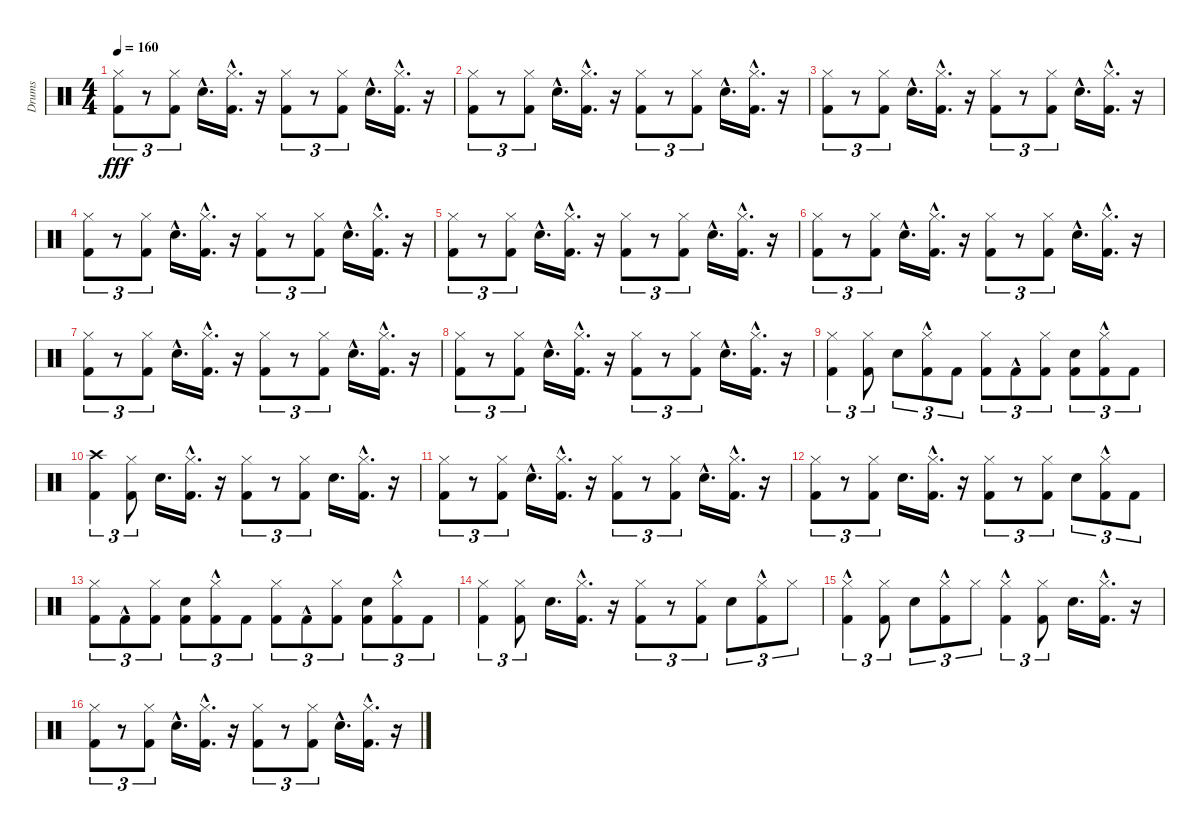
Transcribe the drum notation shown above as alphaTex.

\track ("Drums" "Drums") {instrument percussion}
\staff {score}
\articulation defaults
\ts (4 4)
\tempo 160
\clef neutral
\ks c
("Kick (hit) 2" "Hi-Hat (closed)").8{tu (3 2) dy fff} r.8{tu (3 2)} ("Kick (hit) 2" "Hi-Hat (closed)").8{tu (3 2)} "Snare (hit) 2"{hac}.16{d} ("Kick (hit) 2"{hac} "Hi-Hat (closed)"{hac}).16{d} r.16 ("Kick (hit) 2" "Hi-Hat (closed)").8{tu (3 2)} r.8{tu (3 2)} ("Kick (hit) 2" "Hi-Hat (closed)").8{tu (3 2)} "Snare (hit) 2"{hac}.16{d} ("Kick (hit) 2"{hac} "Hi-Hat (closed)"{hac}).16{d} r.16 |
("Kick (hit) 2" "Hi-Hat (closed)").8{tu (3 2)} r.8{tu (3 2)} ("Kick (hit) 2" "Hi-Hat (closed)").8{tu (3 2)} "Snare (hit) 2"{hac}.16{d} ("Kick (hit) 2"{hac} "Hi-Hat (closed)"{hac}).16{d} r.16 ("Kick (hit) 2" "Hi-Hat (closed)").8{tu (3 2)} r.8{tu (3 2)} ("Kick (hit) 2" "Hi-Hat (closed)").8{tu (3 2)} "Snare (hit) 2"{hac}.16{d} ("Kick (hit) 2"{hac} "Hi-Hat (closed)"{hac}).16{d} r.16 |
("Kick (hit) 2" "Hi-Hat (closed)").8{tu (3 2)} r.8{tu (3 2)} ("Kick (hit) 2" "Hi-Hat (closed)").8{tu (3 2)} "Snare (hit) 2"{hac}.16{d} ("Kick (hit) 2"{hac} "Hi-Hat (closed)"{hac}).16{d} r.16 ("Kick (hit) 2" "Hi-Hat (closed)").8{tu (3 2)} r.8{tu (3 2)} ("Kick (hit) 2" "Hi-Hat (closed)").8{tu (3 2)} "Snare (hit) 2"{hac}.16{d} ("Kick (hit) 2"{hac} "Hi-Hat (closed)"{hac}).16{d} r.16 |
("Kick (hit) 2" "Hi-Hat (closed)").8{tu (3 2)} r.8{tu (3 2)} ("Kick (hit) 2" "Hi-Hat (closed)").8{tu (3 2)} "Snare (hit) 2"{hac}.16{d} ("Kick (hit) 2"{hac} "Hi-Hat (closed)"{hac}).16{d} r.16 ("Kick (hit) 2" "Hi-Hat (closed)").8{tu (3 2)} r.8{tu (3 2)} ("Kick (hit) 2" "Hi-Hat (closed)").8{tu (3 2)} "Snare (hit) 2"{hac}.16{d} ("Kick (hit) 2"{hac} "Hi-Hat (closed)"{hac}).16{d} r.16 |
("Kick (hit) 2" "Hi-Hat (closed)").8{tu (3 2)} r.8{tu (3 2)} ("Kick (hit) 2" "Hi-Hat (closed)").8{tu (3 2)} "Snare (hit) 2"{hac}.16{d} ("Kick (hit) 2"{hac} "Hi-Hat (closed)"{hac}).16{d} r.16 ("Kick (hit) 2" "Hi-Hat (closed)").8{tu (3 2)} r.8{tu (3 2)} ("Kick (hit) 2" "Hi-Hat (closed)").8{tu (3 2)} "Snare (hit) 2"{hac}.16{d} ("Kick (hit) 2"{hac} "Hi-Hat (closed)"{hac}).16{d} r.16 |
("Kick (hit) 2" "Hi-Hat (closed)").8{tu (3 2)} r.8{tu (3 2)} ("Kick (hit) 2" "Hi-Hat (closed)").8{tu (3 2)} "Snare (hit) 2"{hac}.16{d} ("Kick (hit) 2"{hac} "Hi-Hat (closed)"{hac}).16{d} r.16 ("Kick (hit) 2" "Hi-Hat (closed)").8{tu (3 2)} r.8{tu (3 2)} ("Kick (hit) 2" "Hi-Hat (closed)").8{tu (3 2)} "Snare (hit) 2"{hac}.16{d} ("Kick (hit) 2"{hac} "Hi-Hat (closed)"{hac}).16{d} r.16 |
("Kick (hit) 2" "Hi-Hat (closed)").8{tu (3 2)} r.8{tu (3 2)} ("Kick (hit) 2" "Hi-Hat (closed)").8{tu (3 2)} "Snare (hit) 2"{hac}.16{d} ("Kick (hit) 2"{hac} "Hi-Hat (closed)"{hac}).16{d} r.16 ("Kick (hit) 2" "Hi-Hat (closed)").8{tu (3 2)} r.8{tu (3 2)} ("Kick (hit) 2" "Hi-Hat (closed)").8{tu (3 2)} "Snare (hit) 2"{hac}.16{d} ("Kick (hit) 2"{hac} "Hi-Hat (closed)"{hac}).16{d} r.16 |
("Kick (hit) 2" "Hi-Hat (closed)").8{tu (3 2)} r.8{tu (3 2)} ("Kick (hit) 2" "Hi-Hat (closed)").8{tu (3 2)} "Snare (hit) 2"{hac}.16{d} ("Kick (hit) 2"{hac} "Hi-Hat (closed)"{hac}).16{d} r.16 ("Kick (hit) 2" "Hi-Hat (closed)").8{tu (3 2)} r.8{tu (3 2)} ("Kick (hit) 2" "Hi-Hat (closed)").8{tu (3 2)} "Snare (hit) 2"{hac}.16{d} ("Kick (hit) 2"{hac} "Hi-Hat (closed)"{hac}).16{d} r.16 |
("Kick (hit) 2" "Hi-Hat (closed)").4{tu (3 2)} ("Kick (hit) 2" "Hi-Hat (closed)").8{tu (3 2)} "Snare (hit) 2".8{tu (3 2)} ("Kick (hit) 2"{hac} "Hi-Hat (closed)"{hac}).8{tu (3 2)} "Kick (hit) 2".8{tu (3 2)} ("Kick (hit) 2" "Hi-Hat (closed)").8{tu (3 2)} "Kick (hit) 2"{hac}.8{tu (3 2)} ("Kick (hit) 2" "Hi-Hat (closed)").8{tu (3 2)} ("Kick (hit) 2" "Snare (hit) 2").8{tu (3 2)} ("Kick (hit) 2"{hac} "Hi-Hat (closed)").8{tu (3 2)} "Kick (hit) 2".8{tu (3 2)} |
("Kick (hit) 2" "Crash high (hit)").4{tu (3 2)} ("Kick (hit) 2" "Hi-Hat (closed)").8{tu (3 2)} "Snare (hit) 2".16{d} ("Kick (hit) 2"{hac} "Hi-Hat (closed)"{hac}).16{d} r.16 ("Kick (hit) 2" "Hi-Hat (closed)").8{tu (3 2)} r.8{tu (3 2)} ("Kick (hit) 2" "Hi-Hat (closed)").8{tu (3 2)} "Snare (hit) 2".16{d} ("Kick (hit) 2"{hac} "Hi-Hat (closed)"{hac}).16{d} r.16 |
("Kick (hit) 2" "Hi-Hat (closed)").8{tu (3 2)} r.8{tu (3 2)} ("Kick (hit) 2" "Hi-Hat (closed)").8{tu (3 2)} "Snare (hit) 2"{hac}.16{d} ("Kick (hit) 2"{hac} "Hi-Hat (closed)"{hac}).16{d} r.16 ("Kick (hit) 2" "Hi-Hat (closed)").8{tu (3 2)} r.8{tu (3 2)} ("Kick (hit) 2" "Hi-Hat (closed)").8{tu (3 2)} "Snare (hit) 2"{hac}.16{d} ("Kick (hit) 2"{hac} "Hi-Hat (closed)"{hac}).16{d} r.16 |
("Kick (hit) 2" "Hi-Hat (closed)").8{tu (3 2)} r.8{tu (3 2)} ("Kick (hit) 2" "Hi-Hat (closed)").8{tu (3 2)} "Snare (hit) 2".16{d} ("Kick (hit) 2"{hac} "Hi-Hat (closed)"{hac}).16{d} r.16 ("Kick (hit) 2" "Hi-Hat (closed)").8{tu (3 2)} r.8{tu (3 2)} ("Kick (hit) 2" "Hi-Hat (closed)").8{tu (3 2)} "Snare (hit) 2".8{tu (3 2)} ("Kick (hit) 2"{hac} "Hi-Hat (closed)"{hac}).8{tu (3 2)} "Kick (hit) 2".8{tu (3 2)} |
("Kick (hit) 2" "Hi-Hat (closed)").8{tu (3 2)} "Kick (hit) 2"{hac}.8{tu (3 2)} ("Kick (hit) 2" "Hi-Hat (closed)").8{tu (3 2)} ("Kick (hit) 2" "Snare (hit) 2").8{tu (3 2)} ("Kick (hit) 2"{hac} "Hi-Hat (closed)"{hac}).8{tu (3 2)} "Kick (hit) 2".8{tu (3 2)} ("Kick (hit) 2" "Hi-Hat (closed)").8{tu (3 2)} "Kick (hit) 2"{hac}.8{tu (3 2)} ("Kick (hit) 2" "Hi-Hat (closed)").8{tu (3 2)} ("Kick (hit) 2" "Snare (hit) 2").8{tu (3 2)} ("Kick (hit) 2"{hac} "Hi-Hat (closed)").8{tu (3 2)} "Kick (hit) 2".8{tu (3 2)} |
("Kick (hit) 2" "Hi-Hat (closed)").4{tu (3 2)} ("Kick (hit) 2" "Hi-Hat (closed)").8{tu (3 2)} "Snare (hit) 2".16{d} ("Kick (hit) 2"{hac} "Hi-Hat (closed)"{hac}).16{d} r.16 ("Kick (hit) 2" "Hi-Hat (closed)").8{tu (3 2)} r.8{tu (3 2)} ("Kick (hit) 2" "Hi-Hat (closed)").8{tu (3 2)} "Snare (hit) 2".8{tu (3 2)} ("Kick (hit) 2"{hac} "Hi-Hat (closed)"{hac}).8{tu (3 2)} "Hi-Hat (closed)".8{tu (3 2)} |
("Kick (hit) 2"{hac} "Hi-Hat (closed)").4{tu (3 2)} ("Kick (hit) 2" "Hi-Hat (closed)").8{tu (3 2)} "Snare (hit) 2".8{tu (3 2)} ("Kick (hit) 2"{hac} "Hi-Hat (closed)"{hac}).8{tu (3 2)} "Hi-Hat (closed)".8{tu (3 2)} ("Kick (hit) 2"{hac} "Hi-Hat (closed)").4{tu (3 2)} ("Kick (hit) 2" "Hi-Hat (closed)").8{tu (3 2)} "Snare (hit) 2".16{d} ("Kick (hit) 2"{hac} "Hi-Hat (closed)"{hac}).16{d} r.16 |
("Kick (hit) 2" "Hi-Hat (closed)").8{tu (3 2)} r.8{tu (3 2)} ("Kick (hit) 2" "Hi-Hat (closed)").8{tu (3 2)} "Snare (hit) 2"{hac}.16{d} ("Kick (hit) 2"{hac} "Hi-Hat (closed)"{hac}).16{d} r.16 ("Kick (hit) 2" "Hi-Hat (closed)").8{tu (3 2)} r.8{tu (3 2)} ("Kick (hit) 2" "Hi-Hat (closed)").8{tu (3 2)} "Snare (hit) 2"{hac}.16{d} ("Kick (hit) 2"{hac} "Hi-Hat (closed)"{hac}).16{d} r.16
